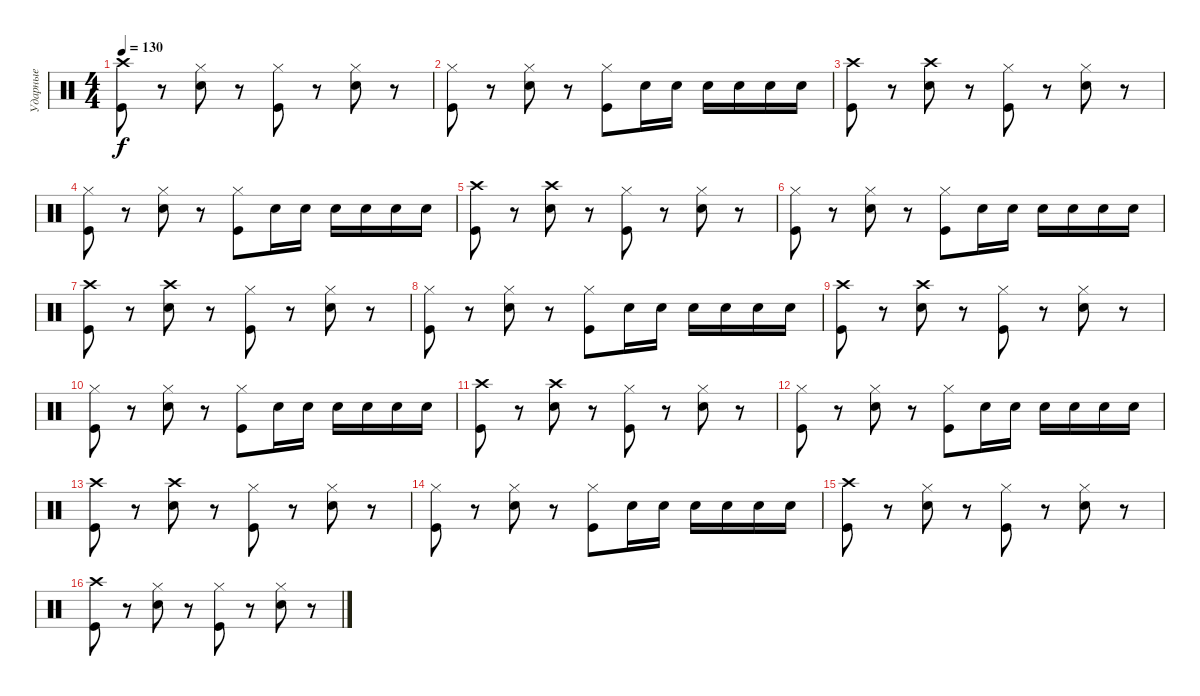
\track ("Ударные" "Ударные") {instrument percussion}
\staff {score}
\articulation defaults
\ts (4 4)
\tempo 130
\clef neutral
\ks c
("Crash high (hit)" "Kick (hit)").8{dy f} r.8 ("Hi-Hat (closed)" "Snare (hit) 2").8 r.8 ("Hi-Hat (closed)" "Kick (hit)").8 r.8 ("Hi-Hat (closed)" "Snare (hit) 2").8 r.8 |
("Hi-Hat (closed)" "Kick (hit)").8 r.8 ("Hi-Hat (closed)" "Snare (hit) 2").8 r.8 ("Hi-Hat (closed)" "Kick (hit)").8 "Snare (hit) 2".16 "Snare (hit) 2".16 "Snare (hit) 2".16 "Snare (hit) 2".16 "Snare (hit) 2".16 "Snare (hit) 2".16 |
("Crash high (hit)" "Kick (hit)").8 r.8 ("Crash high (hit)" "Snare (hit) 2").8 r.8 ("Hi-Hat (closed)" "Kick (hit)").8 r.8 ("Hi-Hat (closed)" "Snare (hit) 2").8 r.8 |
("Hi-Hat (closed)" "Kick (hit)").8 r.8 ("Hi-Hat (closed)" "Snare (hit) 2").8 r.8 ("Hi-Hat (closed)" "Kick (hit)").8 "Snare (hit) 2".16 "Snare (hit) 2".16 "Snare (hit) 2".16 "Snare (hit) 2".16 "Snare (hit) 2".16 "Snare (hit) 2".16 |
("Crash high (hit)" "Kick (hit)").8 r.8 ("Crash high (hit)" "Snare (hit) 2").8 r.8 ("Hi-Hat (closed)" "Kick (hit)").8 r.8 ("Hi-Hat (closed)" "Snare (hit) 2").8 r.8 |
("Hi-Hat (closed)" "Kick (hit)").8 r.8 ("Hi-Hat (closed)" "Snare (hit) 2").8 r.8 ("Hi-Hat (closed)" "Kick (hit)").8 "Snare (hit) 2".16 "Snare (hit) 2".16 "Snare (hit) 2".16 "Snare (hit) 2".16 "Snare (hit) 2".16 "Snare (hit) 2".16 |
("Crash high (hit)" "Kick (hit)").8 r.8 ("Crash high (hit)" "Snare (hit) 2").8 r.8 ("Hi-Hat (closed)" "Kick (hit)").8 r.8 ("Hi-Hat (closed)" "Snare (hit) 2").8 r.8 |
("Hi-Hat (closed)" "Kick (hit)").8 r.8 ("Hi-Hat (closed)" "Snare (hit) 2").8 r.8 ("Hi-Hat (closed)" "Kick (hit)").8 "Snare (hit) 2".16 "Snare (hit) 2".16 "Snare (hit) 2".16 "Snare (hit) 2".16 "Snare (hit) 2".16 "Snare (hit) 2".16 |
("Crash high (hit)" "Kick (hit)").8 r.8 ("Crash high (hit)" "Snare (hit) 2").8 r.8 ("Hi-Hat (closed)" "Kick (hit)").8 r.8 ("Hi-Hat (closed)" "Snare (hit) 2").8 r.8 |
("Hi-Hat (closed)" "Kick (hit)").8 r.8 ("Hi-Hat (closed)" "Snare (hit) 2").8 r.8 ("Hi-Hat (closed)" "Kick (hit)").8 "Snare (hit) 2".16 "Snare (hit) 2".16 "Snare (hit) 2".16 "Snare (hit) 2".16 "Snare (hit) 2".16 "Snare (hit) 2".16 |
("Crash high (hit)" "Kick (hit)").8 r.8 ("Crash high (hit)" "Snare (hit) 2").8 r.8 ("Hi-Hat (closed)" "Kick (hit)").8 r.8 ("Hi-Hat (closed)" "Snare (hit) 2").8 r.8 |
("Hi-Hat (closed)" "Kick (hit)").8 r.8 ("Hi-Hat (closed)" "Snare (hit) 2").8 r.8 ("Hi-Hat (closed)" "Kick (hit)").8 "Snare (hit) 2".16 "Snare (hit) 2".16 "Snare (hit) 2".16 "Snare (hit) 2".16 "Snare (hit) 2".16 "Snare (hit) 2".16 |
("Crash high (hit)" "Kick (hit)").8 r.8 ("Crash high (hit)" "Snare (hit) 2").8 r.8 ("Hi-Hat (closed)" "Kick (hit)").8 r.8 ("Hi-Hat (closed)" "Snare (hit) 2").8 r.8 |
("Hi-Hat (closed)" "Kick (hit)").8 r.8 ("Hi-Hat (closed)" "Snare (hit) 2").8 r.8 ("Hi-Hat (closed)" "Kick (hit)").8 "Snare (hit) 2".16 "Snare (hit) 2".16 "Snare (hit) 2".16 "Snare (hit) 2".16 "Snare (hit) 2".16 "Snare (hit) 2".16 |
("Crash high (hit)" "Kick (hit)").8 r.8 ("Hi-Hat (closed)" "Snare (hit) 2").8 r.8 ("Hi-Hat (closed)" "Kick (hit)").8 r.8 ("Hi-Hat (closed)" "Snare (hit) 2").8 r.8 |
("Crash high (hit)" "Kick (hit)").8 r.8 ("Hi-Hat (closed)" "Snare (hit) 2").8 r.8 ("Hi-Hat (closed)" "Kick (hit)").8 r.8 ("Hi-Hat (closed)" "Snare (hit) 2").8 r.8
